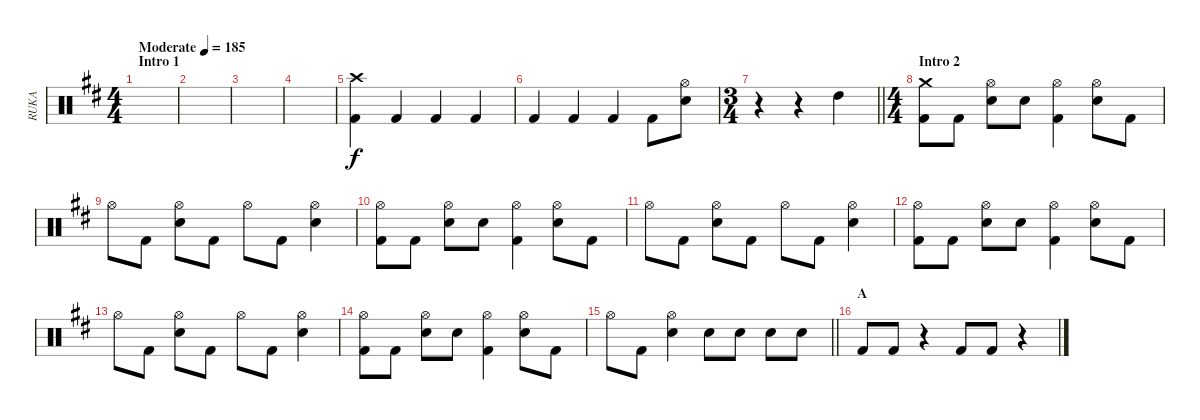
\track ("RUKA" "RUKA") {instrument percussion}
\staff {score}
\articulation defaults
\ts (4 4)
\section ("" "Intro 1")
\tempo (185 "Moderate")
\clef neutral
\ks d
|
|
|
|
("Crash high (hit)" "Kick (hit) 2").4 "Kick (hit) 2".4 "Kick (hit) 2".4 "Kick (hit) 2".4 |
"Kick (hit) 2".4 "Kick (hit) 2".4 "Kick (hit) 2".4 "Kick (hit) 2".8 ("Hi-Hat (open)" "Snare (hit) 2").8 |
\ts (3 4)
\barLineRight lightlight
r.4 r.4 "High Tom (hit)".4 |
\ts (4 4)
\section ("" "Intro 2")
("Crash medium (hit)" "Kick (hit) 2").8 "Kick (hit) 2".8 ("Hi-Hat (open)" "Snare (hit) 2").8 "Snare (hit) 2".8 ("Hi-Hat (open)" "Kick (hit) 2").4 ("Hi-Hat (open)" "Snare (hit) 2").8 "Kick (hit) 2".8 |
"Hi-Hat (open)".8 "Kick (hit) 2".8 ("Hi-Hat (open)" "Snare (hit) 2").8 "Kick (hit) 2".8 "Hi-Hat (open)".8 "Kick (hit) 2".8 ("Hi-Hat (open)" "Snare (hit) 2").4 |
("Hi-Hat (open)" "Kick (hit) 2").8 "Kick (hit) 2".8 ("Hi-Hat (open)" "Snare (hit) 2").8 "Snare (hit) 2".8 ("Hi-Hat (open)" "Kick (hit) 2").4 ("Hi-Hat (open)" "Snare (hit) 2").8 "Kick (hit) 2".8 |
"Hi-Hat (open)".8 "Kick (hit) 2".8 ("Hi-Hat (open)" "Snare (hit) 2").8 "Kick (hit) 2".8 "Hi-Hat (open)".8 "Kick (hit) 2".8 ("Hi-Hat (open)" "Snare (hit) 2").4 |
("Hi-Hat (open)" "Kick (hit) 2").8 "Kick (hit) 2".8 ("Hi-Hat (open)" "Snare (hit) 2").8 "Snare (hit) 2".8 ("Hi-Hat (open)" "Kick (hit) 2").4 ("Hi-Hat (open)" "Snare (hit) 2").8 "Kick (hit) 2".8 |
"Hi-Hat (open)".8 "Kick (hit) 2".8 ("Hi-Hat (open)" "Snare (hit) 2").8 "Kick (hit) 2".8 "Hi-Hat (open)".8 "Kick (hit) 2".8 ("Hi-Hat (open)" "Snare (hit) 2").4 |
("Hi-Hat (open)" "Kick (hit) 2").8 "Kick (hit) 2".8 ("Hi-Hat (open)" "Snare (hit) 2").8 "Snare (hit) 2".8 ("Hi-Hat (open)" "Kick (hit) 2").4 ("Hi-Hat (open)" "Snare (hit) 2").8 "Kick (hit) 2".8 |
\barLineRight lightlight "Hi-Hat (open)".8 "Kick (hit) 2".8
("Hi-Hat (open)" "Snare (hit) 2").4 "Snare (hit) 2".8 "Snare (hit) 2".8 "Snare (hit) 2".8 "Snare (hit) 2".8 |
\section ("" "A")
"Kick (hit) 2".8 "Kick (hit) 2".8 r.4 "Kick (hit) 2".8 "Kick (hit) 2".8 r.4
